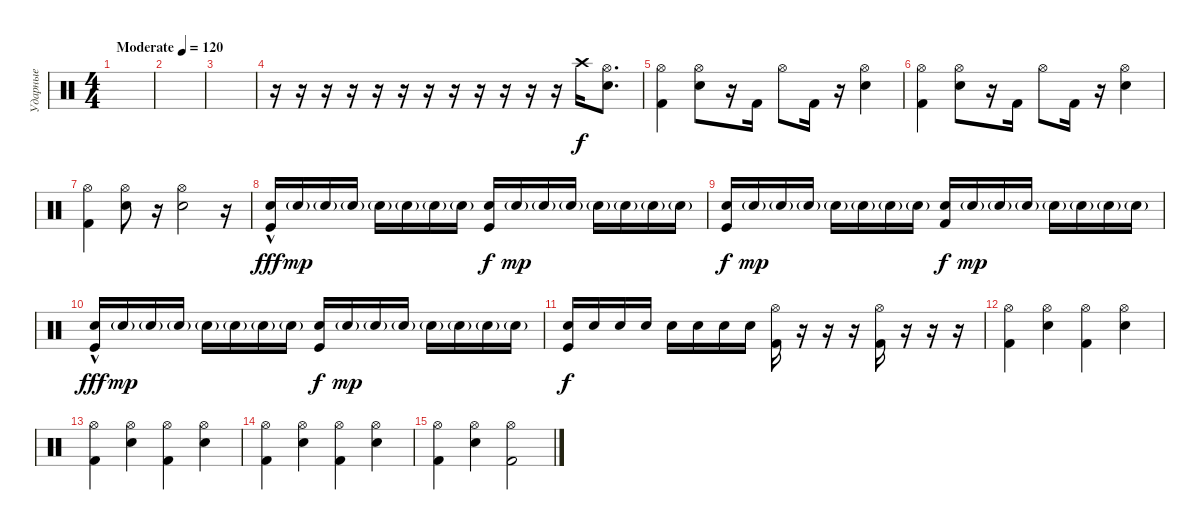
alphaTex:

\track ("Ударные" "Ударные") {instrument percussion}
\staff {score}
\articulation defaults
\ts (4 4)
\tempo (120 "Moderate")
\clef neutral
\ks c
|
|
|
r.16 r.16 r.16 r.16 r.16 r.16 r.16 r.16 r.16 r.16 r.16 r.16 "Crash high (hit)".16 ("Hi-Hat (open)" "Electric Snare (hit)").8{d} |
("Kick (hit) 2" "Hi-Hat (open)").4 ("Electric Snare (hit)" "Hi-Hat (open)").8 r.16 "Kick (hit) 2".16 "Hi-Hat (open)".8 "Kick (hit) 2".16 r.16 ("Electric Snare (hit)" "Hi-Hat (open)").4 |
("Kick (hit) 2" "Hi-Hat (open)").4 ("Electric Snare (hit)" "Hi-Hat (open)").8 r.16 "Kick (hit) 2".16 "Hi-Hat (open)".8 "Kick (hit) 2".16 r.16 ("Electric Snare (hit)" "Hi-Hat (open)").4 |
("Kick (hit) 2" "Hi-Hat (open)").4 ("Electric Snare (hit)" "Hi-Hat (open)").8 r.16 ("Electric Snare (hit)" "Hi-Hat (open)").2 r.16 |
("Electric Snare (hit)"{hac} "Kick (hit)").16{dy fff} "Electric Snare (hit)"{g}.16{dy mp} "Electric Snare (hit)"{g}.16 "Electric Snare (hit)"{g}.16 "Electric Snare (hit)"{g}.16 "Electric Snare (hit)"{g}.16 "Electric Snare (hit)"{g}.16 "Electric Snare (hit)"{g}.16 ("Electric Snare (hit)" "Kick (hit)").16{dy f} "Electric Snare (hit)"{g}.16{dy mp} "Electric Snare (hit)"{g}.16 "Electric Snare (hit)"{g}.16 "Electric Snare (hit)"{g}.16 "Electric Snare (hit)"{g}.16 "Electric Snare (hit)"{g}.16 "Electric Snare (hit)"{g}.16 |
("Electric Snare (hit)" "Kick (hit)").16{dy f} "Electric Snare (hit)"{g}.16{dy mp} "Electric Snare (hit)"{g}.16 "Electric Snare (hit)"{g}.16 "Electric Snare (hit)"{g}.16 "Electric Snare (hit)"{g}.16 "Electric Snare (hit)"{g}.16 "Electric Snare (hit)"{g}.16 ("Electric Snare (hit)" "Kick (hit) 2").16{dy f} "Electric Snare (hit)"{g}.16{dy mp} "Electric Snare (hit)"{g}.16 "Electric Snare (hit)"{g}.16 "Electric Snare (hit)"{g}.16 "Electric Snare (hit)"{g}.16 "Electric Snare (hit)"{g}.16 "Electric Snare (hit)"{g}.16 |
("Electric Snare (hit)"{hac} "Kick (hit)").16{dy fff} "Electric Snare (hit)"{g}.16{dy mp} "Electric Snare (hit)"{g}.16 "Electric Snare (hit)"{g}.16 "Electric Snare (hit)"{g}.16 "Electric Snare (hit)"{g}.16 "Electric Snare (hit)"{g}.16 "Electric Snare (hit)"{g}.16 ("Electric Snare (hit)" "Kick (hit)").16{dy f} "Electric Snare (hit)"{g}.16{dy mp} "Electric Snare (hit)"{g}.16 "Electric Snare (hit)"{g}.16 "Electric Snare (hit)"{g}.16 "Electric Snare (hit)"{g}.16 "Electric Snare (hit)"{g}.16 "Electric Snare (hit)"{g}.16 |
("Electric Snare (hit)" "Kick (hit)").16{dy f} "Snare (hit) 2".16 "Snare (hit) 2".16 "Snare (hit) 2".16 "Snare (hit) 2".16 "Snare (hit) 2".16 "Snare (hit) 2".16 "Snare (hit) 2".16 ("Hi-Hat (open)" "Kick (hit) 2").16 r.16 r.16 r.16 ("Hi-Hat (open)" "Kick (hit) 2").16 r.16 r.16 r.16 |
("Kick (hit) 2" "Hi-Hat (open)").4 ("Electric Snare (hit)" "Hi-Hat (open)").4 ("Kick (hit) 2" "Hi-Hat (open)").4 ("Electric Snare (hit)" "Hi-Hat (open)").4 |
("Kick (hit) 2" "Hi-Hat (open)").4 ("Electric Snare (hit)" "Hi-Hat (open)").4 ("Kick (hit) 2" "Hi-Hat (open)").4 ("Electric Snare (hit)" "Hi-Hat (open)").4 |
("Kick (hit) 2" "Hi-Hat (open)").4 ("Electric Snare (hit)" "Hi-Hat (open)").4 ("Kick (hit) 2" "Hi-Hat (open)").4 ("Electric Snare (hit)" "Hi-Hat (open)").4 |
("Kick (hit) 2" "Hi-Hat (open)").4 ("Electric Snare (hit)" "Hi-Hat (open)").4 ("Kick (hit) 2" "Hi-Hat (open)").2
